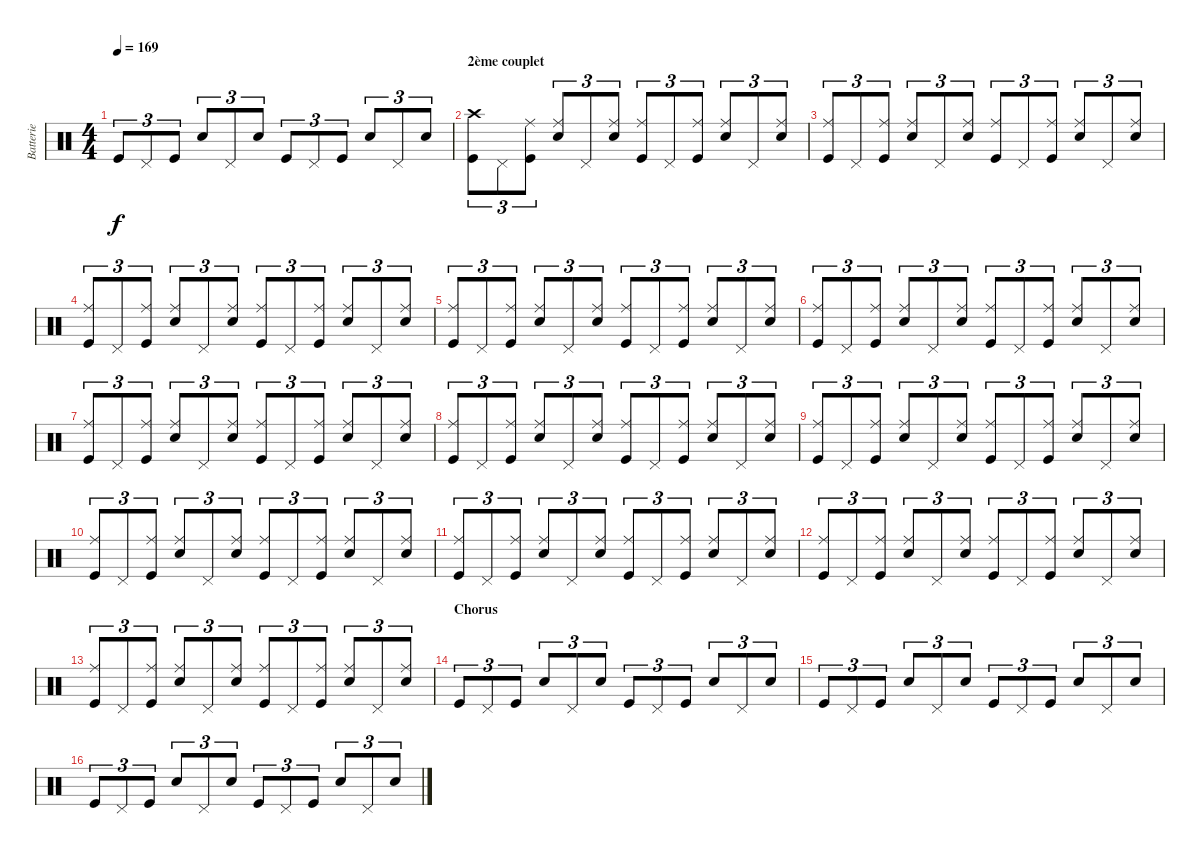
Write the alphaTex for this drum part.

\track ("Batterie" "Batterie") {instrument percussion}
\staff {score}
\articulation defaults
\ts (4 4)
\tempo 169
\clef neutral
\ks c "Kick (hit)".8{tu (3 2) dy f} "Pedal Hi-Hat (hit)".8{tu (3 2)} "Kick (hit)".8{tu (3 2)} "Snare (hit) 2".8{tu (3 2)} "Pedal Hi-Hat (hit)".8{tu (3 2)} "Snare (hit) 2".8{tu (3 2)} "Kick (hit)".8{tu (3 2)} "Pedal Hi-Hat (hit)".8{tu (3 2)} "Kick (hit)".8{tu (3 2)} "Snare (hit) 2".8{tu (3 2)} "Pedal Hi-Hat (hit)".8{tu (3 2)} "Snare (hit) 2".8{tu (3 2)}
|
\section ("" "2ème couplet")
("Crash high (hit)" "Kick (hit)").8{tu (3 2)} "Pedal Hi-Hat (hit)".8{tu (3 2)} ("Ride (middle)" "Kick (hit)").8{tu (3 2)} ("Ride (middle)" "Snare (hit) 2").8{tu (3 2)} "Pedal Hi-Hat (hit)".8{tu (3 2)} ("Ride (middle)" "Snare (hit) 2").8{tu (3 2)} ("Ride (middle)" "Kick (hit)").8{tu (3 2)} "Pedal Hi-Hat (hit)".8{tu (3 2)} ("Ride (middle)" "Kick (hit)").8{tu (3 2)} ("Ride (middle)" "Snare (hit) 2").8{tu (3 2)} "Pedal Hi-Hat (hit)".8{tu (3 2)} ("Ride (middle)" "Snare (hit) 2").8{tu (3 2)} |
("Ride (middle)" "Kick (hit)").8{tu (3 2)} "Pedal Hi-Hat (hit)".8{tu (3 2)} ("Ride (middle)" "Kick (hit)").8{tu (3 2)} ("Ride (middle)" "Snare (hit) 2").8{tu (3 2)} "Pedal Hi-Hat (hit)".8{tu (3 2)} ("Ride (middle)" "Snare (hit) 2").8{tu (3 2)} ("Ride (middle)" "Kick (hit)").8{tu (3 2)} "Pedal Hi-Hat (hit)".8{tu (3 2)} ("Ride (middle)" "Kick (hit)").8{tu (3 2)} ("Ride (middle)" "Snare (hit) 2").8{tu (3 2)} "Pedal Hi-Hat (hit)".8{tu (3 2)} ("Ride (middle)" "Snare (hit) 2").8{tu (3 2)} |
("Ride (middle)" "Kick (hit)").8{tu (3 2)} "Pedal Hi-Hat (hit)".8{tu (3 2)} ("Ride (middle)" "Kick (hit)").8{tu (3 2)} ("Ride (middle)" "Snare (hit) 2").8{tu (3 2)} "Pedal Hi-Hat (hit)".8{tu (3 2)} ("Ride (middle)" "Snare (hit) 2").8{tu (3 2)} ("Ride (middle)" "Kick (hit)").8{tu (3 2)} "Pedal Hi-Hat (hit)".8{tu (3 2)} ("Ride (middle)" "Kick (hit)").8{tu (3 2)} ("Ride (middle)" "Snare (hit) 2").8{tu (3 2)} "Pedal Hi-Hat (hit)".8{tu (3 2)} ("Ride (middle)" "Snare (hit) 2").8{tu (3 2)} |
("Ride (middle)" "Kick (hit)").8{tu (3 2)} "Pedal Hi-Hat (hit)".8{tu (3 2)} ("Ride (middle)" "Kick (hit)").8{tu (3 2)} ("Ride (middle)" "Snare (hit) 2").8{tu (3 2)} "Pedal Hi-Hat (hit)".8{tu (3 2)} ("Ride (middle)" "Snare (hit) 2").8{tu (3 2)} ("Ride (middle)" "Kick (hit)").8{tu (3 2)} "Pedal Hi-Hat (hit)".8{tu (3 2)} ("Ride (middle)" "Kick (hit)").8{tu (3 2)} ("Ride (middle)" "Snare (hit) 2").8{tu (3 2)} "Pedal Hi-Hat (hit)".8{tu (3 2)} ("Ride (middle)" "Snare (hit) 2").8{tu (3 2)} |
("Ride (middle)" "Kick (hit)").8{tu (3 2)} "Pedal Hi-Hat (hit)".8{tu (3 2)} ("Ride (middle)" "Kick (hit)").8{tu (3 2)} ("Ride (middle)" "Snare (hit) 2").8{tu (3 2)} "Pedal Hi-Hat (hit)".8{tu (3 2)} ("Ride (middle)" "Snare (hit) 2").8{tu (3 2)} ("Ride (middle)" "Kick (hit)").8{tu (3 2)} "Pedal Hi-Hat (hit)".8{tu (3 2)} ("Ride (middle)" "Kick (hit)").8{tu (3 2)} ("Ride (middle)" "Snare (hit) 2").8{tu (3 2)} "Pedal Hi-Hat (hit)".8{tu (3 2)} ("Ride (middle)" "Snare (hit) 2").8{tu (3 2)} |
("Ride (middle)" "Kick (hit)").8{tu (3 2)} "Pedal Hi-Hat (hit)".8{tu (3 2)} ("Ride (middle)" "Kick (hit)").8{tu (3 2)} ("Ride (middle)" "Snare (hit) 2").8{tu (3 2)} "Pedal Hi-Hat (hit)".8{tu (3 2)} ("Ride (middle)" "Snare (hit) 2").8{tu (3 2)} ("Ride (middle)" "Kick (hit)").8{tu (3 2)} "Pedal Hi-Hat (hit)".8{tu (3 2)} ("Ride (middle)" "Kick (hit)").8{tu (3 2)} ("Ride (middle)" "Snare (hit) 2").8{tu (3 2)} "Pedal Hi-Hat (hit)".8{tu (3 2)} ("Ride (middle)" "Snare (hit) 2").8{tu (3 2)} |
("Ride (middle)" "Kick (hit)").8{tu (3 2)} "Pedal Hi-Hat (hit)".8{tu (3 2)} ("Ride (middle)" "Kick (hit)").8{tu (3 2)} ("Ride (middle)" "Snare (hit) 2").8{tu (3 2)} "Pedal Hi-Hat (hit)".8{tu (3 2)} ("Ride (middle)" "Snare (hit) 2").8{tu (3 2)} ("Ride (middle)" "Kick (hit)").8{tu (3 2)} "Pedal Hi-Hat (hit)".8{tu (3 2)} ("Ride (middle)" "Kick (hit)").8{tu (3 2)} ("Ride (middle)" "Snare (hit) 2").8{tu (3 2)} "Pedal Hi-Hat (hit)".8{tu (3 2)} ("Ride (middle)" "Snare (hit) 2").8{tu (3 2)} |
("Ride (middle)" "Kick (hit)").8{tu (3 2)} "Pedal Hi-Hat (hit)".8{tu (3 2)} ("Ride (middle)" "Kick (hit)").8{tu (3 2)} ("Ride (middle)" "Snare (hit) 2").8{tu (3 2)} "Pedal Hi-Hat (hit)".8{tu (3 2)} ("Ride (middle)" "Snare (hit) 2").8{tu (3 2)} ("Ride (middle)" "Kick (hit)").8{tu (3 2)} "Pedal Hi-Hat (hit)".8{tu (3 2)} ("Ride (middle)" "Kick (hit)").8{tu (3 2)} ("Ride (middle)" "Snare (hit) 2").8{tu (3 2)} "Pedal Hi-Hat (hit)".8{tu (3 2)} ("Ride (middle)" "Snare (hit) 2").8{tu (3 2)} |
("Ride (middle)" "Kick (hit)").8{tu (3 2)} "Pedal Hi-Hat (hit)".8{tu (3 2)} ("Ride (middle)" "Kick (hit)").8{tu (3 2)} ("Ride (middle)" "Snare (hit) 2").8{tu (3 2)} "Pedal Hi-Hat (hit)".8{tu (3 2)} ("Ride (middle)" "Snare (hit) 2").8{tu (3 2)} ("Ride (middle)" "Kick (hit)").8{tu (3 2)} "Pedal Hi-Hat (hit)".8{tu (3 2)} ("Ride (middle)" "Kick (hit)").8{tu (3 2)} ("Ride (middle)" "Snare (hit) 2").8{tu (3 2)} "Pedal Hi-Hat (hit)".8{tu (3 2)} ("Ride (middle)" "Snare (hit) 2").8{tu (3 2)} |
("Ride (middle)" "Kick (hit)").8{tu (3 2)} "Pedal Hi-Hat (hit)".8{tu (3 2)} ("Ride (middle)" "Kick (hit)").8{tu (3 2)} ("Ride (middle)" "Snare (hit) 2").8{tu (3 2)} "Pedal Hi-Hat (hit)".8{tu (3 2)} ("Ride (middle)" "Snare (hit) 2").8{tu (3 2)} ("Ride (middle)" "Kick (hit)").8{tu (3 2)} "Pedal Hi-Hat (hit)".8{tu (3 2)} ("Ride (middle)" "Kick (hit)").8{tu (3 2)} ("Ride (middle)" "Snare (hit) 2").8{tu (3 2)} "Pedal Hi-Hat (hit)".8{tu (3 2)} ("Ride (middle)" "Snare (hit) 2").8{tu (3 2)} |
("Ride (middle)" "Kick (hit)").8{tu (3 2)} "Pedal Hi-Hat (hit)".8{tu (3 2)} ("Ride (middle)" "Kick (hit)").8{tu (3 2)} ("Ride (middle)" "Snare (hit) 2").8{tu (3 2)} "Pedal Hi-Hat (hit)".8{tu (3 2)} ("Ride (middle)" "Snare (hit) 2").8{tu (3 2)} ("Ride (middle)" "Kick (hit)").8{tu (3 2)} "Pedal Hi-Hat (hit)".8{tu (3 2)} ("Ride (middle)" "Kick (hit)").8{tu (3 2)} ("Ride (middle)" "Snare (hit) 2").8{tu (3 2)} "Pedal Hi-Hat (hit)".8{tu (3 2)} ("Ride (middle)" "Snare (hit) 2").8{tu (3 2)} |
("Ride (middle)" "Kick (hit)").8{tu (3 2)} "Pedal Hi-Hat (hit)".8{tu (3 2)} ("Ride (middle)" "Kick (hit)").8{tu (3 2)} ("Ride (middle)" "Snare (hit) 2").8{tu (3 2)} "Pedal Hi-Hat (hit)".8{tu (3 2)} ("Ride (middle)" "Snare (hit) 2").8{tu (3 2)} ("Ride (middle)" "Kick (hit)").8{tu (3 2)} "Pedal Hi-Hat (hit)".8{tu (3 2)} ("Ride (middle)" "Kick (hit)").8{tu (3 2)} ("Ride (middle)" "Snare (hit) 2").8{tu (3 2)} "Pedal Hi-Hat (hit)".8{tu (3 2)} ("Ride (middle)" "Snare (hit) 2").8{tu (3 2)} |
\section ("" "Chorus")
"Kick (hit)".8{tu (3 2)} "Pedal Hi-Hat (hit)".8{tu (3 2)} "Kick (hit)".8{tu (3 2)} "Snare (hit) 2".8{tu (3 2)} "Pedal Hi-Hat (hit)".8{tu (3 2)} "Snare (hit) 2".8{tu (3 2)} "Kick (hit)".8{tu (3 2)} "Pedal Hi-Hat (hit)".8{tu (3 2)} "Kick (hit)".8{tu (3 2)} "Snare (hit) 2".8{tu (3 2)} "Pedal Hi-Hat (hit)".8{tu (3 2)} "Snare (hit) 2".8{tu (3 2)} |
"Kick (hit)".8{tu (3 2)} "Pedal Hi-Hat (hit)".8{tu (3 2)} "Kick (hit)".8{tu (3 2)} "Snare (hit) 2".8{tu (3 2)} "Pedal Hi-Hat (hit)".8{tu (3 2)} "Snare (hit) 2".8{tu (3 2)} "Kick (hit)".8{tu (3 2)} "Pedal Hi-Hat (hit)".8{tu (3 2)} "Kick (hit)".8{tu (3 2)} "Snare (hit) 2".8{tu (3 2)} "Pedal Hi-Hat (hit)".8{tu (3 2)} "Snare (hit) 2".8{tu (3 2)} |
"Kick (hit)".8{tu (3 2)} "Pedal Hi-Hat (hit)".8{tu (3 2)} "Kick (hit)".8{tu (3 2)} "Snare (hit) 2".8{tu (3 2)} "Pedal Hi-Hat (hit)".8{tu (3 2)} "Snare (hit) 2".8{tu (3 2)} "Kick (hit)".8{tu (3 2)} "Pedal Hi-Hat (hit)".8{tu (3 2)} "Kick (hit)".8{tu (3 2)} "Snare (hit) 2".8{tu (3 2)} "Pedal Hi-Hat (hit)".8{tu (3 2)} "Snare (hit) 2".8{tu (3 2)}
